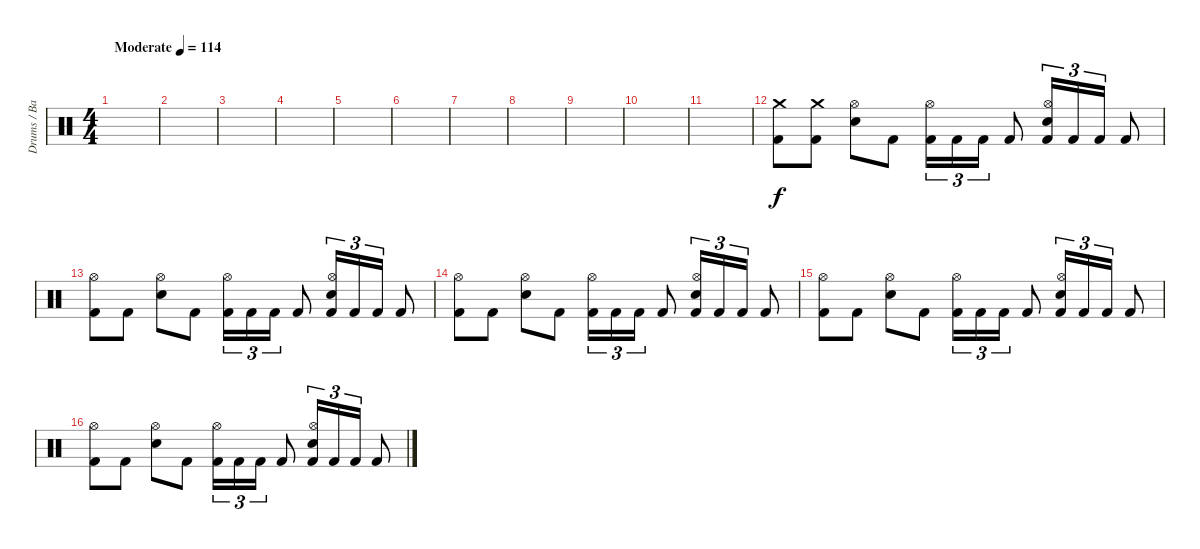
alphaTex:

\track ("Drums / Bateria" "Drums / Ba") {instrument percussion}
\staff {score}
\articulation defaults
\ts (4 4)
\tempo (114 "Moderate")
\clef neutral
\ks c
|
|
|
|
|
|
|
|
|
|
|
("Crash medium (hit)" "Kick (hit) 2").8{volume 16} ("Crash medium (hit)" "Kick (hit) 2").8 ("Hi-Hat (open)" "Snare (hit) 2").8 "Kick (hit) 2".8 ("Hi-Hat (open)" "Kick (hit) 2").16{tu (3 2)} "Kick (hit) 2".16{tu (3 2)} "Kick (hit) 2".16{tu (3 2)} "Kick (hit) 2".8 ("Hi-Hat (open)" "Snare (hit) 2" "Kick (hit) 2").16{tu (3 2)} "Kick (hit) 2".16{tu (3 2)} "Kick (hit) 2".16{tu (3 2)} "Kick (hit) 2".8 |
("Hi-Hat (open)" "Kick (hit) 2").8 "Kick (hit) 2".8 ("Hi-Hat (open)" "Snare (hit) 2").8 "Kick (hit) 2".8 ("Hi-Hat (open)" "Kick (hit) 2").16{tu (3 2)} "Kick (hit) 2".16{tu (3 2)} "Kick (hit) 2".16{tu (3 2)} "Kick (hit) 2".8 ("Hi-Hat (open)" "Snare (hit) 2" "Kick (hit) 2").16{tu (3 2)} "Kick (hit) 2".16{tu (3 2)} "Kick (hit) 2".16{tu (3 2)} "Kick (hit) 2".8 |
("Hi-Hat (open)" "Kick (hit) 2").8 "Kick (hit) 2".8 ("Hi-Hat (open)" "Snare (hit) 2").8 "Kick (hit) 2".8 ("Hi-Hat (open)" "Kick (hit) 2").16{tu (3 2)} "Kick (hit) 2".16{tu (3 2)} "Kick (hit) 2".16{tu (3 2)} "Kick (hit) 2".8 ("Hi-Hat (open)" "Snare (hit) 2" "Kick (hit) 2").16{tu (3 2)} "Kick (hit) 2".16{tu (3 2)} "Kick (hit) 2".16{tu (3 2)} "Kick (hit) 2".8 |
("Hi-Hat (open)" "Kick (hit) 2").8 "Kick (hit) 2".8 ("Hi-Hat (open)" "Snare (hit) 2").8 "Kick (hit) 2".8 ("Hi-Hat (open)" "Kick (hit) 2").16{tu (3 2)} "Kick (hit) 2".16{tu (3 2)} "Kick (hit) 2".16{tu (3 2)} "Kick (hit) 2".8 ("Hi-Hat (open)" "Snare (hit) 2" "Kick (hit) 2").16{tu (3 2)} "Kick (hit) 2".16{tu (3 2)} "Kick (hit) 2".16{tu (3 2)} "Kick (hit) 2".8 |
("Hi-Hat (open)" "Kick (hit) 2").8 "Kick (hit) 2".8 ("Hi-Hat (open)" "Snare (hit) 2").8 "Kick (hit) 2".8 ("Hi-Hat (open)" "Kick (hit) 2").16{tu (3 2)} "Kick (hit) 2".16{tu (3 2)} "Kick (hit) 2".16{tu (3 2)} "Kick (hit) 2".8 ("Hi-Hat (open)" "Snare (hit) 2" "Kick (hit) 2").16{tu (3 2)} "Kick (hit) 2".16{tu (3 2)} "Kick (hit) 2".16{tu (3 2)} "Kick (hit) 2".8
